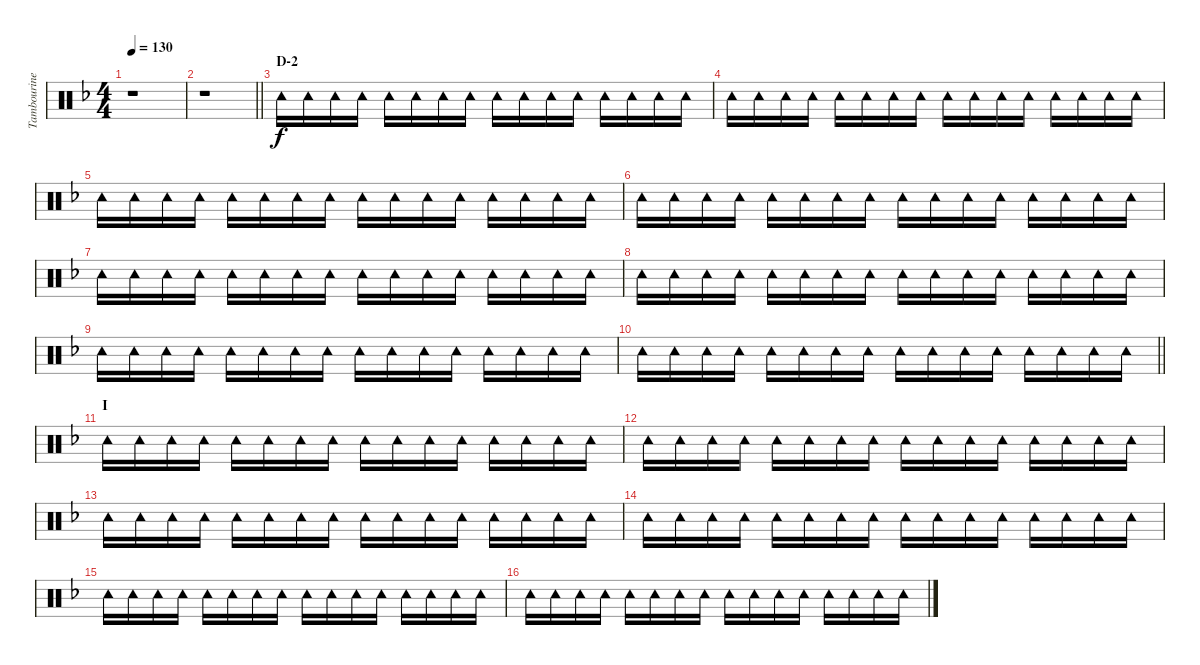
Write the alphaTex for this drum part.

\track ("Tambourine" "Tambourine") {instrument percussion}
\staff {score}
\articulation defaults
\ts (4 4)
\tempo 130
\clef neutral
\ks f
r.1{dy f} |
\barLineRight lightlight
r.1 |
\section ("" "D-2")
"Tambourine (hit)".16 "Tambourine (hit)".16 "Tambourine (hit)".16 "Tambourine (hit)".16 "Tambourine (hit)".16 "Tambourine (hit)".16 "Tambourine (hit)".16 "Tambourine (hit)".16 "Tambourine (hit)".16 "Tambourine (hit)".16 "Tambourine (hit)".16 "Tambourine (hit)".16 "Tambourine (hit)".16 "Tambourine (hit)".16 "Tambourine (hit)".16 "Tambourine (hit)".16 |
"Tambourine (hit)".16 "Tambourine (hit)".16 "Tambourine (hit)".16 "Tambourine (hit)".16 "Tambourine (hit)".16 "Tambourine (hit)".16 "Tambourine (hit)".16 "Tambourine (hit)".16 "Tambourine (hit)".16 "Tambourine (hit)".16 "Tambourine (hit)".16 "Tambourine (hit)".16 "Tambourine (hit)".16 "Tambourine (hit)".16 "Tambourine (hit)".16 "Tambourine (hit)".16 |
"Tambourine (hit)".16 "Tambourine (hit)".16 "Tambourine (hit)".16 "Tambourine (hit)".16 "Tambourine (hit)".16 "Tambourine (hit)".16 "Tambourine (hit)".16 "Tambourine (hit)".16 "Tambourine (hit)".16 "Tambourine (hit)".16 "Tambourine (hit)".16 "Tambourine (hit)".16 "Tambourine (hit)".16 "Tambourine (hit)".16 "Tambourine (hit)".16 "Tambourine (hit)".16 |
"Tambourine (hit)".16 "Tambourine (hit)".16 "Tambourine (hit)".16 "Tambourine (hit)".16 "Tambourine (hit)".16 "Tambourine (hit)".16 "Tambourine (hit)".16 "Tambourine (hit)".16 "Tambourine (hit)".16 "Tambourine (hit)".16 "Tambourine (hit)".16 "Tambourine (hit)".16 "Tambourine (hit)".16 "Tambourine (hit)".16 "Tambourine (hit)".16 "Tambourine (hit)".16 |
"Tambourine (hit)".16 "Tambourine (hit)".16 "Tambourine (hit)".16 "Tambourine (hit)".16 "Tambourine (hit)".16 "Tambourine (hit)".16 "Tambourine (hit)".16 "Tambourine (hit)".16 "Tambourine (hit)".16 "Tambourine (hit)".16 "Tambourine (hit)".16 "Tambourine (hit)".16 "Tambourine (hit)".16 "Tambourine (hit)".16 "Tambourine (hit)".16 "Tambourine (hit)".16 |
"Tambourine (hit)".16 "Tambourine (hit)".16 "Tambourine (hit)".16 "Tambourine (hit)".16 "Tambourine (hit)".16 "Tambourine (hit)".16 "Tambourine (hit)".16 "Tambourine (hit)".16 "Tambourine (hit)".16 "Tambourine (hit)".16 "Tambourine (hit)".16 "Tambourine (hit)".16 "Tambourine (hit)".16 "Tambourine (hit)".16 "Tambourine (hit)".16 "Tambourine (hit)".16 |
"Tambourine (hit)".16 "Tambourine (hit)".16 "Tambourine (hit)".16 "Tambourine (hit)".16 "Tambourine (hit)".16 "Tambourine (hit)".16 "Tambourine (hit)".16 "Tambourine (hit)".16 "Tambourine (hit)".16 "Tambourine (hit)".16 "Tambourine (hit)".16 "Tambourine (hit)".16 "Tambourine (hit)".16 "Tambourine (hit)".16 "Tambourine (hit)".16 "Tambourine (hit)".16 |
\barLineRight lightlight "Tambourine (hit)".16 "Tambourine (hit)".16 "Tambourine (hit)".16 "Tambourine (hit)".16 "Tambourine (hit)".16 "Tambourine (hit)".16 "Tambourine (hit)".16 "Tambourine (hit)".16 "Tambourine (hit)".16 "Tambourine (hit)".16 "Tambourine (hit)".16 "Tambourine (hit)".16 "Tambourine (hit)".16 "Tambourine (hit)".16 "Tambourine (hit)".16 "Tambourine (hit)".16
|
\section ("" "I")
"Tambourine (hit)".16 "Tambourine (hit)".16 "Tambourine (hit)".16 "Tambourine (hit)".16 "Tambourine (hit)".16 "Tambourine (hit)".16 "Tambourine (hit)".16 "Tambourine (hit)".16 "Tambourine (hit)".16 "Tambourine (hit)".16 "Tambourine (hit)".16 "Tambourine (hit)".16 "Tambourine (hit)".16 "Tambourine (hit)".16 "Tambourine (hit)".16 "Tambourine (hit)".16 |
"Tambourine (hit)".16 "Tambourine (hit)".16 "Tambourine (hit)".16 "Tambourine (hit)".16 "Tambourine (hit)".16 "Tambourine (hit)".16 "Tambourine (hit)".16 "Tambourine (hit)".16 "Tambourine (hit)".16 "Tambourine (hit)".16 "Tambourine (hit)".16 "Tambourine (hit)".16 "Tambourine (hit)".16 "Tambourine (hit)".16 "Tambourine (hit)".16 "Tambourine (hit)".16 |
"Tambourine (hit)".16 "Tambourine (hit)".16 "Tambourine (hit)".16 "Tambourine (hit)".16 "Tambourine (hit)".16 "Tambourine (hit)".16 "Tambourine (hit)".16 "Tambourine (hit)".16 "Tambourine (hit)".16 "Tambourine (hit)".16 "Tambourine (hit)".16 "Tambourine (hit)".16 "Tambourine (hit)".16 "Tambourine (hit)".16 "Tambourine (hit)".16 "Tambourine (hit)".16 |
"Tambourine (hit)".16 "Tambourine (hit)".16 "Tambourine (hit)".16 "Tambourine (hit)".16 "Tambourine (hit)".16 "Tambourine (hit)".16 "Tambourine (hit)".16 "Tambourine (hit)".16 "Tambourine (hit)".16 "Tambourine (hit)".16 "Tambourine (hit)".16 "Tambourine (hit)".16 "Tambourine (hit)".16 "Tambourine (hit)".16 "Tambourine (hit)".16 "Tambourine (hit)".16 |
"Tambourine (hit)".16 "Tambourine (hit)".16 "Tambourine (hit)".16 "Tambourine (hit)".16 "Tambourine (hit)".16 "Tambourine (hit)".16 "Tambourine (hit)".16 "Tambourine (hit)".16 "Tambourine (hit)".16 "Tambourine (hit)".16 "Tambourine (hit)".16 "Tambourine (hit)".16 "Tambourine (hit)".16 "Tambourine (hit)".16 "Tambourine (hit)".16 "Tambourine (hit)".16 |
"Tambourine (hit)".16 "Tambourine (hit)".16 "Tambourine (hit)".16 "Tambourine (hit)".16 "Tambourine (hit)".16 "Tambourine (hit)".16 "Tambourine (hit)".16 "Tambourine (hit)".16 "Tambourine (hit)".16 "Tambourine (hit)".16 "Tambourine (hit)".16 "Tambourine (hit)".16 "Tambourine (hit)".16 "Tambourine (hit)".16 "Tambourine (hit)".16 "Tambourine (hit)".16
